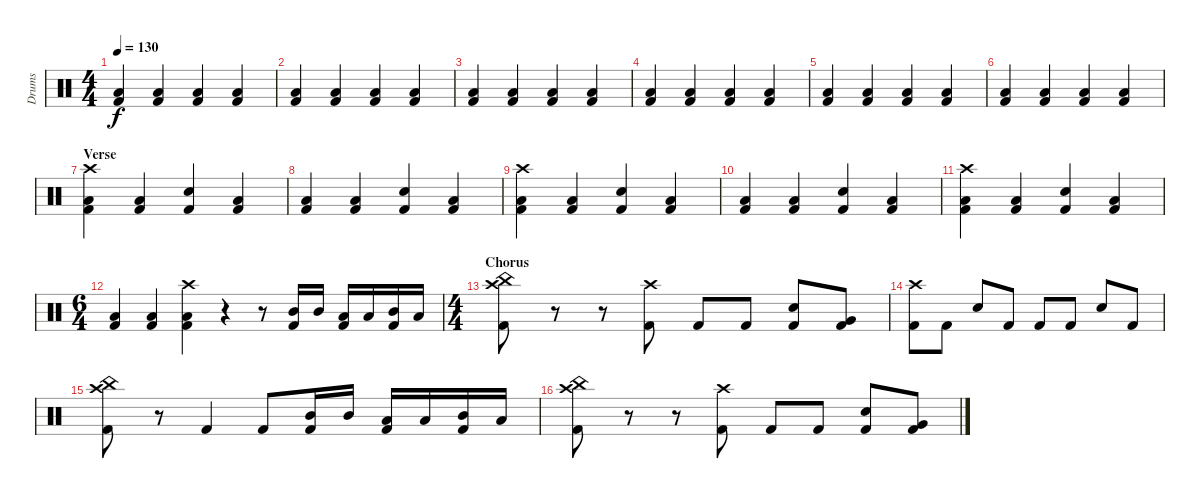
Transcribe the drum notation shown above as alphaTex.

\track ("Drums" "Drums") {instrument percussion}
\staff {score}
\articulation defaults
\ts (4 4)
\tempo 130
\clef neutral
\ks c
("Low Floor Tom (hit)" "Kick (hit) 2").4{dy f} ("Low Floor Tom (hit)" "Kick (hit) 2").4 ("Low Floor Tom (hit)" "Kick (hit) 2").4 ("Low Floor Tom (hit)" "Kick (hit) 2").4 |
("Low Floor Tom (hit)" "Kick (hit) 2").4 ("Low Floor Tom (hit)" "Kick (hit) 2").4 ("Low Floor Tom (hit)" "Kick (hit) 2").4 ("Low Floor Tom (hit)" "Kick (hit) 2").4 |
("Low Floor Tom (hit)" "Kick (hit) 2").4 ("Low Floor Tom (hit)" "Kick (hit) 2").4 ("Low Floor Tom (hit)" "Kick (hit) 2").4 ("Low Floor Tom (hit)" "Kick (hit) 2").4 |
("Low Floor Tom (hit)" "Kick (hit) 2").4 ("Low Floor Tom (hit)" "Kick (hit) 2").4 ("Low Floor Tom (hit)" "Kick (hit) 2").4 ("Low Floor Tom (hit)" "Kick (hit) 2").4 |
("Low Floor Tom (hit)" "Kick (hit) 2").4 ("Low Floor Tom (hit)" "Kick (hit) 2").4 ("Low Floor Tom (hit)" "Kick (hit) 2").4 ("Low Floor Tom (hit)" "Kick (hit) 2").4 |
("Low Floor Tom (hit)" "Kick (hit) 2").4 ("Low Floor Tom (hit)" "Kick (hit) 2").4 ("Low Floor Tom (hit)" "Kick (hit) 2").4 ("Low Floor Tom (hit)" "Kick (hit) 2").4 |
\section ("" "Verse")
("Crash high (hit)" "Low Floor Tom (hit)" "Kick (hit) 2").4 ("Low Floor Tom (hit)" "Kick (hit) 2").4 ("Electric Snare (hit)" "Kick (hit) 2").4 ("Low Floor Tom (hit)" "Kick (hit) 2").4 |
("Low Floor Tom (hit)" "Kick (hit) 2").4 ("Low Floor Tom (hit)" "Kick (hit) 2").4 ("Electric Snare (hit)" "Kick (hit) 2").4 ("Low Floor Tom (hit)" "Kick (hit) 2").4 |
("Crash high (hit)" "Low Floor Tom (hit)" "Kick (hit) 2").4 ("Low Floor Tom (hit)" "Kick (hit) 2").4 ("Electric Snare (hit)" "Kick (hit) 2").4 ("Low Floor Tom (hit)" "Kick (hit) 2").4 |
("Low Floor Tom (hit)" "Kick (hit) 2").4 ("Low Floor Tom (hit)" "Kick (hit) 2").4 ("Electric Snare (hit)" "Kick (hit) 2").4 ("Low Floor Tom (hit)" "Kick (hit) 2").4 |
("Crash high (hit)" "Low Floor Tom (hit)" "Kick (hit) 2").4 ("Low Floor Tom (hit)" "Kick (hit) 2").4 ("Electric Snare (hit)" "Kick (hit) 2").4 ("Low Floor Tom (hit)" "Kick (hit) 2").4 |
\ts (6 4)
("Low Floor Tom (hit)" "Kick (hit) 2").4 ("Low Floor Tom (hit)" "Kick (hit) 2").4 ("Crash high (hit)" "Low Floor Tom (hit)" "Kick (hit) 2").4 r.4 r.8 ("Mid Tom (hit)" "Kick (hit) 2").16 "Mid Tom (hit)".16 ("Low Tom (hit)" "Kick (hit) 2").16 "Low Tom (hit)".16 ("Mid Tom (hit)" "Kick (hit) 2").16 "Low Floor Tom (hit)".16 |
\ts (4 4)
\section ("" "Chorus")
("China (hit)" "Crash high (hit)" "Kick (hit) 2").8 r.8 r.8 ("Crash high (hit)" "Kick (hit) 2").8 "Kick (hit) 2".8 "Kick (hit) 2".8 ("Electric Snare (hit)" "Kick (hit) 2").8 ("Very Low Tom (hit)" "Kick (hit) 2").8 |
("Crash high (hit)" "Kick (hit) 2").8 "Kick (hit) 2".8 "Electric Snare (hit)".8 "Kick (hit) 2".8 "Kick (hit) 2".8 "Kick (hit) 2".8 "Electric Snare (hit)".8 "Kick (hit) 2".8 |
("China (hit)" "Crash high (hit)" "Kick (hit) 2").8 r.8 "Kick (hit) 2".4 "Kick (hit) 2".8 ("Mid Tom (hit)" "Kick (hit) 2").16 "Mid Tom (hit)".16 ("Low Tom (hit)" "Kick (hit) 2").16 "Low Tom (hit)".16 ("Mid Tom (hit)" "Kick (hit) 2").16 "Low Floor Tom (hit)".16 |
("China (hit)" "Crash high (hit)" "Kick (hit) 2").8 r.8 r.8 ("Crash high (hit)" "Kick (hit) 2").8 "Kick (hit) 2".8 "Kick (hit) 2".8 ("Electric Snare (hit)" "Kick (hit) 2").8 ("Very Low Tom (hit)" "Kick (hit) 2").8
